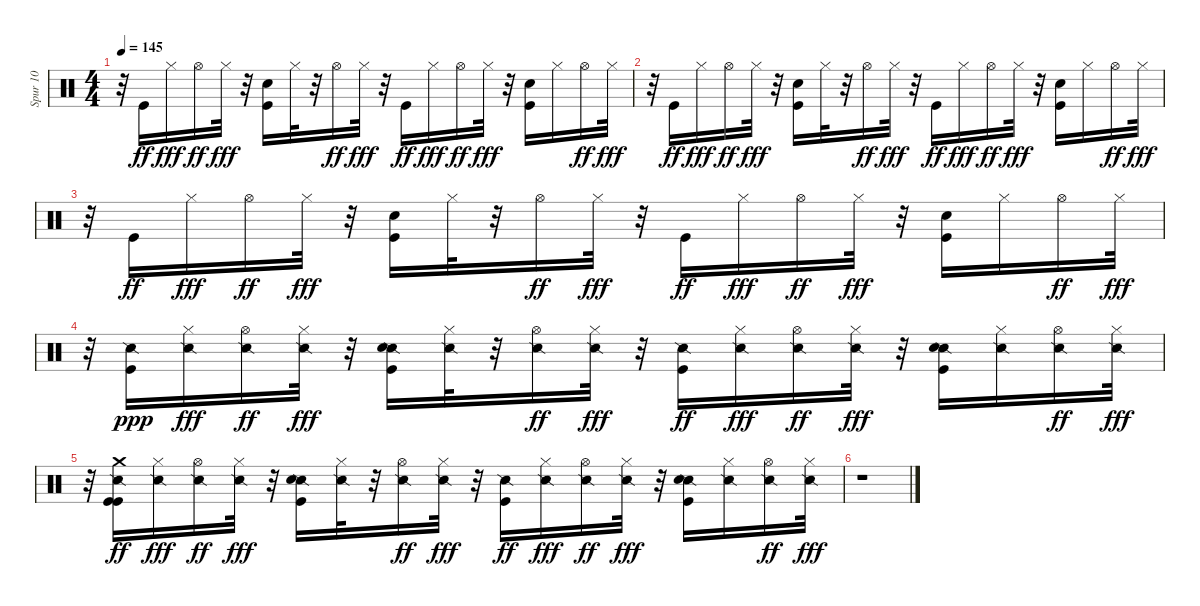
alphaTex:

\track ("Spur 10" "Spur 10") {instrument percussion}
\staff {score}
\articulation defaults
\ts (4 4)
\tempo 145
\clef neutral
\ks c
r.32{dy fff} "Kick (hit)".16{dy ff} "Hi-Hat (closed)".16{dy fff} "Hi-Hat (open)".16{dy ff} "Hi-Hat (closed)".32{dy fff} r.32 ("Kick (hit)" "Hand Clap (hit)").16 "Hi-Hat (closed)".32 r.32 "Hi-Hat (open)".16{dy ff} "Hi-Hat (closed)".32{dy fff} r.32 "Kick (hit)".16{dy ff} "Hi-Hat (closed)".16{dy fff} "Hi-Hat (open)".16{dy ff} "Hi-Hat (closed)".32{dy fff} r.32 ("Kick (hit)" "Hand Clap (hit)").16 "Hi-Hat (closed)".16 "Hi-Hat (open)".16{dy ff} "Hi-Hat (closed)".32{dy fff} |
r.32 "Kick (hit)".16{dy ff} "Hi-Hat (closed)".16{dy fff} "Hi-Hat (open)".16{dy ff} "Hi-Hat (closed)".32{dy fff} r.32 ("Kick (hit)" "Hand Clap (hit)").16 "Hi-Hat (closed)".32 r.32 "Hi-Hat (open)".16{dy ff} "Hi-Hat (closed)".32{dy fff} r.32 "Kick (hit)".16{dy ff} "Hi-Hat (closed)".16{dy fff} "Hi-Hat (open)".16{dy ff} "Hi-Hat (closed)".32{dy fff} r.32 ("Kick (hit)" "Hand Clap (hit)").16 "Hi-Hat (closed)".16 "Hi-Hat (open)".16{dy ff} "Hi-Hat (closed)".32{dy fff} |
r.32 "Kick (hit)".16{dy ff} "Hi-Hat (closed)".16{dy fff} "Hi-Hat (open)".16{dy ff} "Hi-Hat (closed)".32{dy fff} r.32 ("Kick (hit)" "Hand Clap (hit)").16 "Hi-Hat (closed)".32 r.32 "Hi-Hat (open)".16{dy ff} "Hi-Hat (closed)".32{dy fff} r.32 "Kick (hit)".16{dy ff} "Hi-Hat (closed)".16{dy fff} "Hi-Hat (open)".16{dy ff} "Hi-Hat (closed)".32{dy fff} r.32 ("Kick (hit)" "Hand Clap (hit)").16 "Hi-Hat (closed)".16 "Hi-Hat (open)".16{dy ff} "Hi-Hat (closed)".32{dy fff} |
r.32 ("Kick (hit)" "Snare (side stick) 2").16{dy ppp} ("Snare (side stick) 2" "Hi-Hat (closed)").16{dy fff} ("Snare (side stick) 2" "Hi-Hat (open)").16{dy ff} ("Snare (side stick) 2" "Hi-Hat (closed)").32{dy fff} r.32 ("Snare (side stick) 2" "Kick (hit)" "Hand Clap (hit)").16 ("Snare (side stick) 2" "Hi-Hat (closed)").32 r.32 ("Snare (side stick) 2" "Hi-Hat (open)").16{dy ff} ("Snare (side stick) 2" "Hi-Hat (closed)").32{dy fff} r.32 ("Snare (side stick) 2" "Kick (hit)").16{dy ff} ("Snare (side stick) 2" "Hi-Hat (closed)").16{dy fff} ("Snare (side stick) 2" "Hi-Hat (open)").16{dy ff} ("Snare (side stick) 2" "Hi-Hat (closed)").32{dy fff} r.32 ("Snare (side stick) 2" "Kick (hit)" "Hand Clap (hit)").16 ("Snare (side stick) 2" "Hi-Hat (closed)").16 ("Snare (side stick) 2" "Hi-Hat (open)").16{dy ff} ("Snare (side stick) 2" "Hi-Hat (closed)").32{dy fff} |
r.32 ("Snare (side stick) 2" "Kick (hit)" "Crash medium (hit)" "Kick (hit)").16{dy ff} ("Snare (side stick) 2" "Hi-Hat (closed)").16{dy fff} ("Snare (side stick) 2" "Hi-Hat (open)").16{dy ff} ("Snare (side stick) 2" "Hi-Hat (closed)").32{dy fff} r.32 ("Snare (side stick) 2" "Kick (hit)" "Hand Clap (hit)").16 ("Snare (side stick) 2" "Hi-Hat (closed)").32 r.32 ("Snare (side stick) 2" "Hi-Hat (open)").16{dy ff} ("Snare (side stick) 2" "Hi-Hat (closed)").32{dy fff} r.32 ("Snare (side stick) 2" "Kick (hit)").16{dy ff} ("Snare (side stick) 2" "Hi-Hat (closed)").16{dy fff} ("Snare (side stick) 2" "Hi-Hat (open)").16{dy ff} ("Snare (side stick) 2" "Hi-Hat (closed)").32{dy fff} r.32 ("Snare (side stick) 2" "Kick (hit)" "Hand Clap (hit)").16 ("Snare (side stick) 2" "Hi-Hat (closed)").16 ("Snare (side stick) 2" "Hi-Hat (open)").16{dy ff} ("Snare (side stick) 2" "Hi-Hat (closed)").32{dy fff} |
r.1
